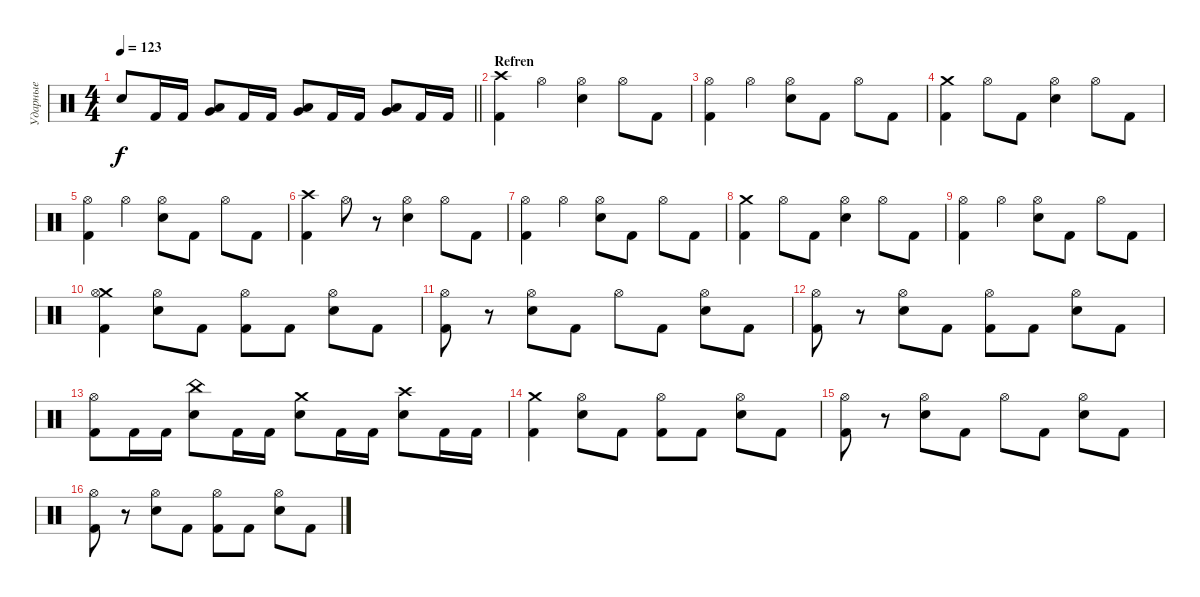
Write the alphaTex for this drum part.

\track ("Ударные" "Ударные") {instrument percussion}
\staff {score}
\articulation defaults
\ts (4 4)
\tempo 123
\clef neutral
\barLineRight lightlight
\ks c "Snare (hit) 2".8{dy f} "Kick (hit) 2".16 "Kick (hit) 2".16
("Low Tom (hit)" "Very Low Tom (hit)").8 "Kick (hit) 2".16 "Kick (hit) 2".16 ("Low Tom (hit)" "Very Low Tom (hit)").8 "Kick (hit) 2".16 "Kick (hit) 2".16 ("Low Tom (hit)" "Very Low Tom (hit)").8 "Kick (hit) 2".16 "Kick (hit) 2".16 |
\section ("" "Refren")
("Crash high (hit)" "Kick (hit) 2").4 "Hi-Hat (open)".4 ("Snare (hit) 2" "Hi-Hat (open)").4 "Hi-Hat (open)".8 "Kick (hit) 2".8 |
("Kick (hit) 2" "Hi-Hat (open)").4 "Hi-Hat (open)".4 ("Snare (hit) 2" "Hi-Hat (open)").8 "Kick (hit) 2".8 "Hi-Hat (open)".8 "Kick (hit) 2".8 |
("Crash medium (hit)" "Kick (hit) 2").4 "Hi-Hat (open)".8 "Kick (hit) 2".8 ("Snare (hit) 2" "Hi-Hat (open)").4 "Hi-Hat (open)".8 "Kick (hit) 2".8 |
("Kick (hit) 2" "Hi-Hat (open)").4 "Hi-Hat (open)".4 ("Snare (hit) 2" "Hi-Hat (open)").8 "Kick (hit) 2".8 "Hi-Hat (open)".8 "Kick (hit) 2".8 |
("Crash high (hit)" "Kick (hit) 2").4 "Hi-Hat (open)".8 r.8 ("Snare (hit) 2" "Hi-Hat (open)").4 "Hi-Hat (open)".8 "Kick (hit) 2".8 |
("Kick (hit) 2" "Hi-Hat (open)").4 "Hi-Hat (open)".4 ("Snare (hit) 2" "Hi-Hat (open)").8 "Kick (hit) 2".8 "Hi-Hat (open)".8 "Kick (hit) 2".8 |
("Crash medium (hit)" "Kick (hit) 2").4 "Hi-Hat (open)".8 "Kick (hit) 2".8 ("Snare (hit) 2" "Hi-Hat (open)").4 "Hi-Hat (open)".8 "Kick (hit) 2".8 |
("Kick (hit) 2" "Hi-Hat (open)").4 "Hi-Hat (open)".4 ("Snare (hit) 2" "Hi-Hat (open)").8 "Kick (hit) 2".8 "Hi-Hat (open)".8 "Kick (hit) 2".8 |
("Crash medium (hit)" "Kick (hit) 2" "Hi-Hat (open)").4 ("Snare (hit) 2" "Hi-Hat (open)").8 "Kick (hit) 2".8 ("Kick (hit) 2" "Hi-Hat (open)").8 "Kick (hit) 2".8 ("Snare (hit) 2" "Hi-Hat (open)").8 "Kick (hit) 2".8 |
("Kick (hit) 2" "Hi-Hat (open)").8 r.8 ("Snare (hit) 2" "Hi-Hat (open)").8 "Kick (hit) 2".8 "Hi-Hat (open)".8 "Kick (hit) 2".8 ("Snare (hit) 2" "Hi-Hat (open)").8 "Kick (hit) 2".8 |
("Kick (hit) 2" "Hi-Hat (open)").8 r.8 ("Snare (hit) 2" "Hi-Hat (open)").8 "Kick (hit) 2".8 ("Kick (hit) 2" "Hi-Hat (open)").8 "Kick (hit) 2".8 ("Snare (hit) 2" "Hi-Hat (open)").8 "Kick (hit) 2".8 |
("Kick (hit) 2" "Hi-Hat (open)").8 "Kick (hit) 2".16 "Kick (hit) 2".16 ("China (hit)" "Snare (hit) 2").8 "Kick (hit) 2".16 "Kick (hit) 2".16 ("Crash medium (hit)" "Snare (hit) 2").8 "Kick (hit) 2".16 "Kick (hit) 2".16 ("Crash high (hit)" "Snare (hit) 2").8 "Kick (hit) 2".16 "Kick (hit) 2".16 |
("Crash medium (hit)" "Kick (hit) 2").4 ("Snare (hit) 2" "Hi-Hat (open)").8 "Kick (hit) 2".8 ("Kick (hit) 2" "Hi-Hat (open)").8 "Kick (hit) 2".8 ("Snare (hit) 2" "Hi-Hat (open)").8 "Kick (hit) 2".8 |
("Kick (hit) 2" "Hi-Hat (open)").8 r.8 ("Snare (hit) 2" "Hi-Hat (open)").8 "Kick (hit) 2".8 "Hi-Hat (open)".8 "Kick (hit) 2".8 ("Snare (hit) 2" "Hi-Hat (open)").8 "Kick (hit) 2".8 |
("Kick (hit) 2" "Hi-Hat (open)").8 r.8 ("Snare (hit) 2" "Hi-Hat (open)").8 "Kick (hit) 2".8 ("Kick (hit) 2" "Hi-Hat (open)").8 "Kick (hit) 2".8 ("Snare (hit) 2" "Hi-Hat (open)").8 "Kick (hit) 2".8
